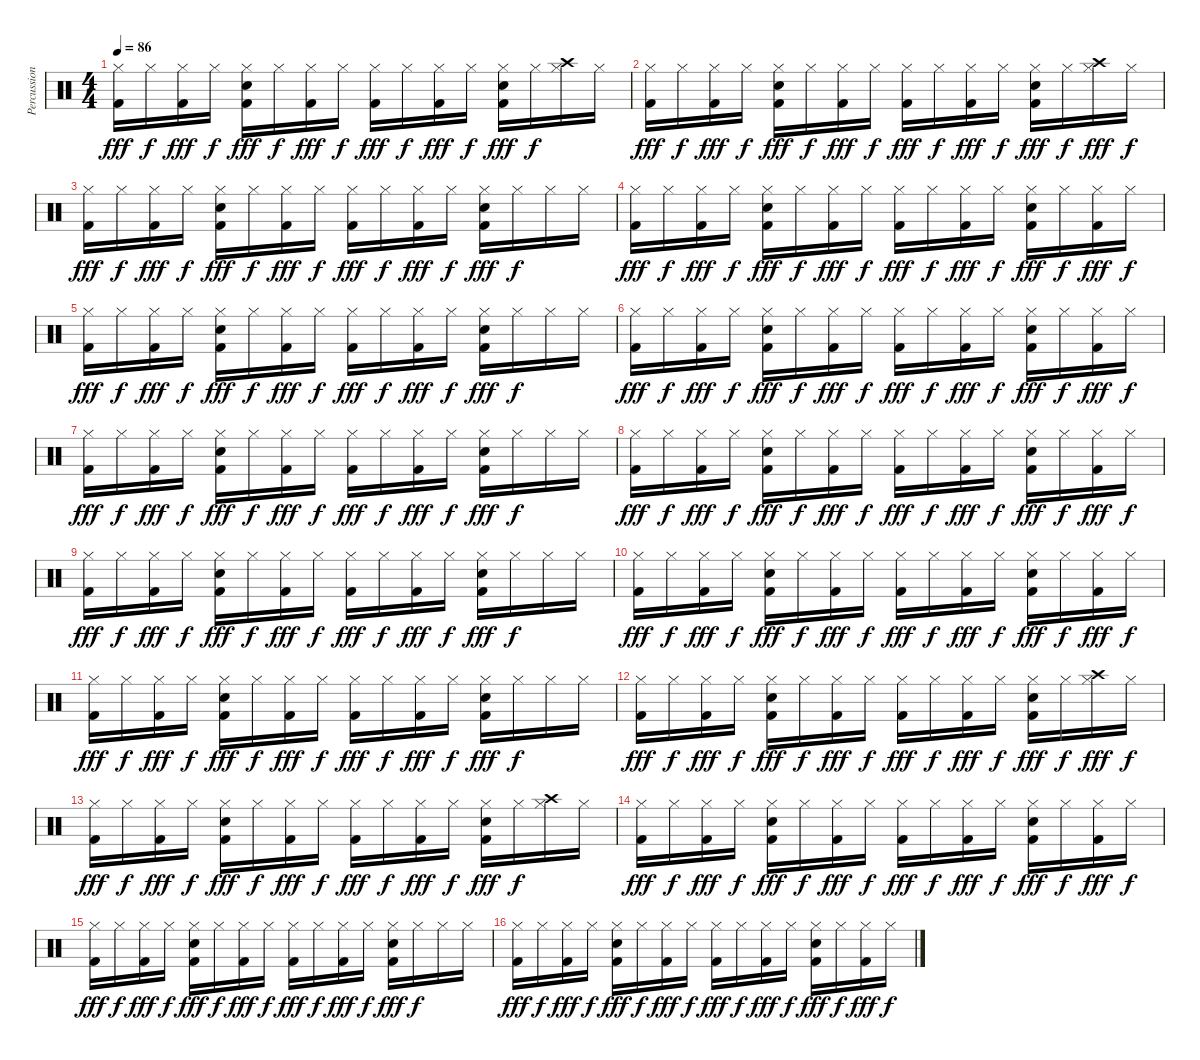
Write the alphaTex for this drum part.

\track ("Percussion" "Percussion") {instrument percussion}
\staff {score}
\articulation defaults
\ts (4 4)
\tempo 86
\clef neutral
\ks c
("Hi-Hat (closed)" "Kick (hit) 2").16{dy fff} "Hi-Hat (closed)".16{dy f} ("Hi-Hat (closed)" "Kick (hit) 2").16{dy fff} "Hi-Hat (closed)".16{dy f} ("Hi-Hat (closed)" "Electric Snare (hit)" "Kick (hit) 2").16{dy fff} "Hi-Hat (closed)".16{dy f} ("Hi-Hat (closed)" "Kick (hit) 2").16{dy fff} "Hi-Hat (closed)".16{dy f} ("Hi-Hat (closed)" "Kick (hit) 2").16{dy fff} "Hi-Hat (closed)".16{dy f} ("Hi-Hat (closed)" "Kick (hit) 2").16{dy fff} "Hi-Hat (closed)".16{dy f} ("Hi-Hat (closed)" "Electric Snare (hit)" "Kick (hit) 2").16{dy fff} "Hi-Hat (closed)".16{dy f} ("Hi-Hat (closed)" "Crash high (hit)").16 "Hi-Hat (closed)".16 |
("Hi-Hat (closed)" "Kick (hit) 2").16{dy fff} "Hi-Hat (closed)".16{dy f} ("Hi-Hat (closed)" "Kick (hit) 2").16{dy fff} "Hi-Hat (closed)".16{dy f} ("Hi-Hat (closed)" "Electric Snare (hit)" "Kick (hit) 2").16{dy fff} "Hi-Hat (closed)".16{dy f} ("Hi-Hat (closed)" "Kick (hit) 2").16{dy fff} "Hi-Hat (closed)".16{dy f} ("Hi-Hat (closed)" "Kick (hit) 2").16{dy fff} "Hi-Hat (closed)".16{dy f} ("Hi-Hat (closed)" "Kick (hit) 2").16{dy fff} "Hi-Hat (closed)".16{dy f} ("Hi-Hat (closed)" "Electric Snare (hit)" "Kick (hit) 2").16{dy fff} "Hi-Hat (closed)".16{dy f} ("Hi-Hat (closed)" "Crash high (hit)").16{dy fff} "Hi-Hat (closed)".16{dy f} |
("Hi-Hat (closed)" "Kick (hit) 2").16{dy fff} "Hi-Hat (closed)".16{dy f} ("Hi-Hat (closed)" "Kick (hit) 2").16{dy fff} "Hi-Hat (closed)".16{dy f} ("Hi-Hat (closed)" "Electric Snare (hit)" "Kick (hit) 2").16{dy fff} "Hi-Hat (closed)".16{dy f} ("Hi-Hat (closed)" "Kick (hit) 2").16{dy fff} "Hi-Hat (closed)".16{dy f} ("Hi-Hat (closed)" "Kick (hit) 2").16{dy fff} "Hi-Hat (closed)".16{dy f} ("Hi-Hat (closed)" "Kick (hit) 2").16{dy fff} "Hi-Hat (closed)".16{dy f} ("Hi-Hat (closed)" "Electric Snare (hit)" "Kick (hit) 2").16{dy fff} "Hi-Hat (closed)".16{dy f} "Hi-Hat (closed)".16 "Hi-Hat (closed)".16 |
("Hi-Hat (closed)" "Kick (hit) 2").16{dy fff} "Hi-Hat (closed)".16{dy f} ("Hi-Hat (closed)" "Kick (hit) 2").16{dy fff} "Hi-Hat (closed)".16{dy f} ("Hi-Hat (closed)" "Electric Snare (hit)" "Kick (hit) 2").16{dy fff} "Hi-Hat (closed)".16{dy f} ("Hi-Hat (closed)" "Kick (hit) 2").16{dy fff} "Hi-Hat (closed)".16{dy f} ("Hi-Hat (closed)" "Kick (hit) 2").16{dy fff} "Hi-Hat (closed)".16{dy f} ("Hi-Hat (closed)" "Kick (hit) 2").16{dy fff} "Hi-Hat (closed)".16{dy f} ("Hi-Hat (closed)" "Electric Snare (hit)" "Kick (hit) 2").16{dy fff} "Hi-Hat (closed)".16{dy f} ("Hi-Hat (closed)" "Kick (hit) 2").16{dy fff} "Hi-Hat (closed)".16{dy f} |
("Hi-Hat (closed)" "Kick (hit) 2").16{dy fff} "Hi-Hat (closed)".16{dy f} ("Hi-Hat (closed)" "Kick (hit) 2").16{dy fff} "Hi-Hat (closed)".16{dy f} ("Hi-Hat (closed)" "Electric Snare (hit)" "Kick (hit) 2").16{dy fff} "Hi-Hat (closed)".16{dy f} ("Hi-Hat (closed)" "Kick (hit) 2").16{dy fff} "Hi-Hat (closed)".16{dy f} ("Hi-Hat (closed)" "Kick (hit) 2").16{dy fff} "Hi-Hat (closed)".16{dy f} ("Hi-Hat (closed)" "Kick (hit) 2").16{dy fff} "Hi-Hat (closed)".16{dy f} ("Hi-Hat (closed)" "Electric Snare (hit)" "Kick (hit) 2").16{dy fff} "Hi-Hat (closed)".16{dy f} "Hi-Hat (closed)".16 "Hi-Hat (closed)".16 |
("Hi-Hat (closed)" "Kick (hit) 2").16{dy fff} "Hi-Hat (closed)".16{dy f} ("Hi-Hat (closed)" "Kick (hit) 2").16{dy fff} "Hi-Hat (closed)".16{dy f} ("Hi-Hat (closed)" "Electric Snare (hit)" "Kick (hit) 2").16{dy fff} "Hi-Hat (closed)".16{dy f} ("Hi-Hat (closed)" "Kick (hit) 2").16{dy fff} "Hi-Hat (closed)".16{dy f} ("Hi-Hat (closed)" "Kick (hit) 2").16{dy fff} "Hi-Hat (closed)".16{dy f} ("Hi-Hat (closed)" "Kick (hit) 2").16{dy fff} "Hi-Hat (closed)".16{dy f} ("Hi-Hat (closed)" "Electric Snare (hit)" "Kick (hit) 2").16{dy fff} "Hi-Hat (closed)".16{dy f} ("Hi-Hat (closed)" "Kick (hit) 2").16{dy fff} "Hi-Hat (closed)".16{dy f} |
("Hi-Hat (closed)" "Kick (hit) 2").16{dy fff} "Hi-Hat (closed)".16{dy f} ("Hi-Hat (closed)" "Kick (hit) 2").16{dy fff} "Hi-Hat (closed)".16{dy f} ("Hi-Hat (closed)" "Electric Snare (hit)" "Kick (hit) 2").16{dy fff} "Hi-Hat (closed)".16{dy f} ("Hi-Hat (closed)" "Kick (hit) 2").16{dy fff} "Hi-Hat (closed)".16{dy f} ("Hi-Hat (closed)" "Kick (hit) 2").16{dy fff} "Hi-Hat (closed)".16{dy f} ("Hi-Hat (closed)" "Kick (hit) 2").16{dy fff} "Hi-Hat (closed)".16{dy f} ("Hi-Hat (closed)" "Electric Snare (hit)" "Kick (hit) 2").16{dy fff} "Hi-Hat (closed)".16{dy f} "Hi-Hat (closed)".16 "Hi-Hat (closed)".16 |
("Hi-Hat (closed)" "Kick (hit) 2").16{dy fff} "Hi-Hat (closed)".16{dy f} ("Hi-Hat (closed)" "Kick (hit) 2").16{dy fff} "Hi-Hat (closed)".16{dy f} ("Hi-Hat (closed)" "Electric Snare (hit)" "Kick (hit) 2").16{dy fff} "Hi-Hat (closed)".16{dy f} ("Hi-Hat (closed)" "Kick (hit) 2").16{dy fff} "Hi-Hat (closed)".16{dy f} ("Hi-Hat (closed)" "Kick (hit) 2").16{dy fff} "Hi-Hat (closed)".16{dy f} ("Hi-Hat (closed)" "Kick (hit) 2").16{dy fff} "Hi-Hat (closed)".16{dy f} ("Hi-Hat (closed)" "Electric Snare (hit)" "Kick (hit) 2").16{dy fff} "Hi-Hat (closed)".16{dy f} ("Hi-Hat (closed)" "Kick (hit) 2").16{dy fff} "Hi-Hat (closed)".16{dy f} |
("Hi-Hat (closed)" "Kick (hit) 2").16{dy fff} "Hi-Hat (closed)".16{dy f} ("Hi-Hat (closed)" "Kick (hit) 2").16{dy fff} "Hi-Hat (closed)".16{dy f} ("Hi-Hat (closed)" "Electric Snare (hit)" "Kick (hit) 2").16{dy fff} "Hi-Hat (closed)".16{dy f} ("Hi-Hat (closed)" "Kick (hit) 2").16{dy fff} "Hi-Hat (closed)".16{dy f} ("Hi-Hat (closed)" "Kick (hit) 2").16{dy fff} "Hi-Hat (closed)".16{dy f} ("Hi-Hat (closed)" "Kick (hit) 2").16{dy fff} "Hi-Hat (closed)".16{dy f} ("Hi-Hat (closed)" "Electric Snare (hit)" "Kick (hit) 2").16{dy fff} "Hi-Hat (closed)".16{dy f} "Hi-Hat (closed)".16 "Hi-Hat (closed)".16 |
("Hi-Hat (closed)" "Kick (hit) 2").16{dy fff} "Hi-Hat (closed)".16{dy f} ("Hi-Hat (closed)" "Kick (hit) 2").16{dy fff} "Hi-Hat (closed)".16{dy f} ("Hi-Hat (closed)" "Electric Snare (hit)" "Kick (hit) 2").16{dy fff} "Hi-Hat (closed)".16{dy f} ("Hi-Hat (closed)" "Kick (hit) 2").16{dy fff} "Hi-Hat (closed)".16{dy f} ("Hi-Hat (closed)" "Kick (hit) 2").16{dy fff} "Hi-Hat (closed)".16{dy f} ("Hi-Hat (closed)" "Kick (hit) 2").16{dy fff} "Hi-Hat (closed)".16{dy f} ("Hi-Hat (closed)" "Electric Snare (hit)" "Kick (hit) 2").16{dy fff} "Hi-Hat (closed)".16{dy f} ("Hi-Hat (closed)" "Kick (hit) 2").16{dy fff} "Hi-Hat (closed)".16{dy f} |
("Hi-Hat (closed)" "Kick (hit) 2").16{dy fff} "Hi-Hat (closed)".16{dy f} ("Hi-Hat (closed)" "Kick (hit) 2").16{dy fff} "Hi-Hat (closed)".16{dy f} ("Hi-Hat (closed)" "Electric Snare (hit)" "Kick (hit) 2").16{dy fff} "Hi-Hat (closed)".16{dy f} ("Hi-Hat (closed)" "Kick (hit) 2").16{dy fff} "Hi-Hat (closed)".16{dy f} ("Hi-Hat (closed)" "Kick (hit) 2").16{dy fff} "Hi-Hat (closed)".16{dy f} ("Hi-Hat (closed)" "Kick (hit) 2").16{dy fff} "Hi-Hat (closed)".16{dy f} ("Hi-Hat (closed)" "Electric Snare (hit)" "Kick (hit) 2").16{dy fff} "Hi-Hat (closed)".16{dy f} "Hi-Hat (closed)".16 "Hi-Hat (closed)".16 |
("Hi-Hat (closed)" "Kick (hit) 2").16{dy fff} "Hi-Hat (closed)".16{dy f} ("Hi-Hat (closed)" "Kick (hit) 2").16{dy fff} "Hi-Hat (closed)".16{dy f} ("Hi-Hat (closed)" "Electric Snare (hit)" "Kick (hit) 2").16{dy fff} "Hi-Hat (closed)".16{dy f} ("Hi-Hat (closed)" "Kick (hit) 2").16{dy fff} "Hi-Hat (closed)".16{dy f} ("Hi-Hat (closed)" "Kick (hit) 2").16{dy fff} "Hi-Hat (closed)".16{dy f} ("Hi-Hat (closed)" "Kick (hit) 2").16{dy fff} "Hi-Hat (closed)".16{dy f} ("Hi-Hat (closed)" "Electric Snare (hit)" "Kick (hit) 2").16{dy fff} "Hi-Hat (closed)".16{dy f} ("Hi-Hat (closed)" "Crash high (hit)").16{dy fff} "Hi-Hat (closed)".16{dy f} |
("Hi-Hat (closed)" "Kick (hit) 2").16{dy fff} "Hi-Hat (closed)".16{dy f} ("Hi-Hat (closed)" "Kick (hit) 2").16{dy fff} "Hi-Hat (closed)".16{dy f} ("Hi-Hat (closed)" "Electric Snare (hit)" "Kick (hit) 2").16{dy fff} "Hi-Hat (closed)".16{dy f} ("Hi-Hat (closed)" "Kick (hit) 2").16{dy fff} "Hi-Hat (closed)".16{dy f} ("Hi-Hat (closed)" "Kick (hit) 2").16{dy fff} "Hi-Hat (closed)".16{dy f} ("Hi-Hat (closed)" "Kick (hit) 2").16{dy fff} "Hi-Hat (closed)".16{dy f} ("Hi-Hat (closed)" "Electric Snare (hit)" "Kick (hit) 2").16{dy fff} "Hi-Hat (closed)".16{dy f} ("Hi-Hat (closed)" "Crash high (hit)").16 "Hi-Hat (closed)".16 |
("Hi-Hat (closed)" "Kick (hit) 2").16{dy fff} "Hi-Hat (closed)".16{dy f} ("Hi-Hat (closed)" "Kick (hit) 2").16{dy fff} "Hi-Hat (closed)".16{dy f} ("Hi-Hat (closed)" "Electric Snare (hit)" "Kick (hit) 2").16{dy fff} "Hi-Hat (closed)".16{dy f} ("Hi-Hat (closed)" "Kick (hit) 2").16{dy fff} "Hi-Hat (closed)".16{dy f} ("Hi-Hat (closed)" "Kick (hit) 2").16{dy fff} "Hi-Hat (closed)".16{dy f} ("Hi-Hat (closed)" "Kick (hit) 2").16{dy fff} "Hi-Hat (closed)".16{dy f} ("Hi-Hat (closed)" "Electric Snare (hit)" "Kick (hit) 2").16{dy fff} "Hi-Hat (closed)".16{dy f} ("Hi-Hat (closed)" "Kick (hit) 2").16{dy fff} "Hi-Hat (closed)".16{dy f} |
("Hi-Hat (closed)" "Kick (hit) 2").16{dy fff} "Hi-Hat (closed)".16{dy f} ("Hi-Hat (closed)" "Kick (hit) 2").16{dy fff} "Hi-Hat (closed)".16{dy f} ("Hi-Hat (closed)" "Electric Snare (hit)" "Kick (hit) 2").16{dy fff} "Hi-Hat (closed)".16{dy f} ("Hi-Hat (closed)" "Kick (hit) 2").16{dy fff} "Hi-Hat (closed)".16{dy f} ("Hi-Hat (closed)" "Kick (hit) 2").16{dy fff} "Hi-Hat (closed)".16{dy f} ("Hi-Hat (closed)" "Kick (hit) 2").16{dy fff} "Hi-Hat (closed)".16{dy f} ("Hi-Hat (closed)" "Electric Snare (hit)" "Kick (hit) 2").16{dy fff} "Hi-Hat (closed)".16{dy f} "Hi-Hat (closed)".16 "Hi-Hat (closed)".16 |
("Hi-Hat (closed)" "Kick (hit) 2").16{dy fff} "Hi-Hat (closed)".16{dy f} ("Hi-Hat (closed)" "Kick (hit) 2").16{dy fff} "Hi-Hat (closed)".16{dy f} ("Hi-Hat (closed)" "Electric Snare (hit)" "Kick (hit) 2").16{dy fff} "Hi-Hat (closed)".16{dy f} ("Hi-Hat (closed)" "Kick (hit) 2").16{dy fff} "Hi-Hat (closed)".16{dy f} ("Hi-Hat (closed)" "Kick (hit) 2").16{dy fff} "Hi-Hat (closed)".16{dy f} ("Hi-Hat (closed)" "Kick (hit) 2").16{dy fff} "Hi-Hat (closed)".16{dy f} ("Hi-Hat (closed)" "Electric Snare (hit)" "Kick (hit) 2").16{dy fff} "Hi-Hat (closed)".16{dy f} ("Hi-Hat (closed)" "Kick (hit) 2").16{dy fff} "Hi-Hat (closed)".16{dy f}
